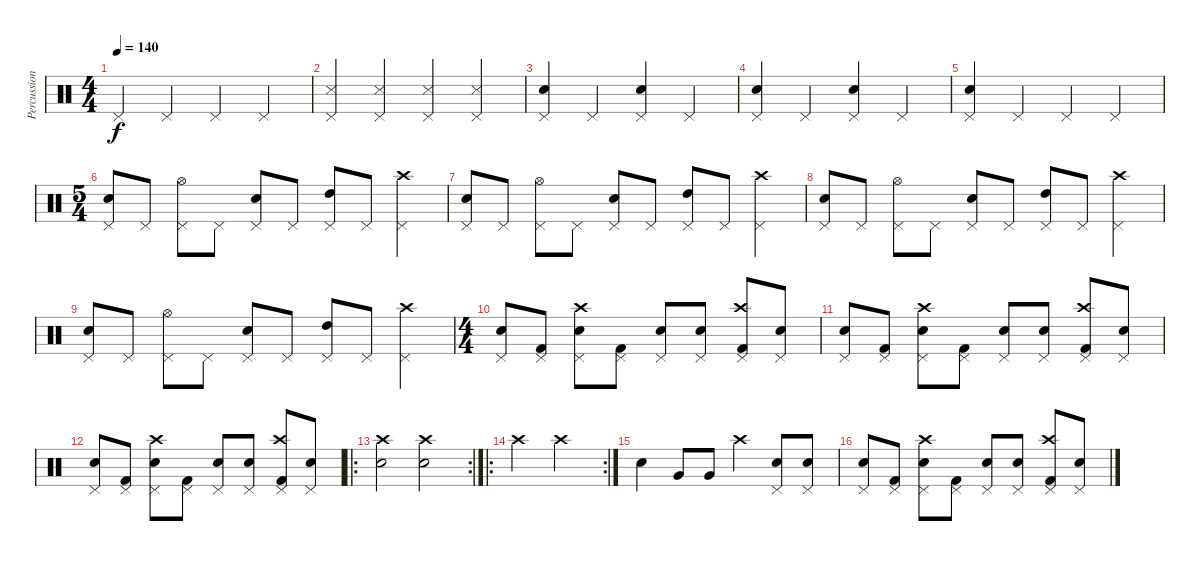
\track ("Percussion" "Percussion") {instrument percussion}
\staff {score}
\articulation defaults
\ts (4 4)
\tempo 140
\clef neutral
\ks c "Pedal Hi-Hat (hit)".4{dy f} "Pedal Hi-Hat (hit)".4 "Pedal Hi-Hat (hit)".4 "Pedal Hi-Hat (hit)".4
|
("Pedal Hi-Hat (hit)" "Snare (side stick) 3").4 ("Pedal Hi-Hat (hit)" "Snare (side stick) 3").4 ("Pedal Hi-Hat (hit)" "Snare (side stick) 3").4 ("Pedal Hi-Hat (hit)" "Snare (side stick) 3").4 |
("Pedal Hi-Hat (hit)" "Snare (hit) 2").4 "Pedal Hi-Hat (hit)".4 ("Pedal Hi-Hat (hit)" "Snare (hit) 2").4 "Pedal Hi-Hat (hit)".4 |
("Pedal Hi-Hat (hit)" "Snare (hit) 2").4 "Pedal Hi-Hat (hit)".4 ("Pedal Hi-Hat (hit)" "Snare (hit) 2").4 "Pedal Hi-Hat (hit)".4 |
("Pedal Hi-Hat (hit)" "Snare (hit) 2").4 "Pedal Hi-Hat (hit)".4 "Pedal Hi-Hat (hit)".4 "Pedal Hi-Hat (hit)".4 |
\ts (5 4)
("Pedal Hi-Hat (hit)" "Snare (hit) 2").8 "Pedal Hi-Hat (hit)".8 ("Pedal Hi-Hat (hit)" "Hi-Hat (open)").8 "Pedal Hi-Hat (hit)".8 ("Pedal Hi-Hat (hit)" "Snare (hit) 2").8 "Pedal Hi-Hat (hit)".8 ("Pedal Hi-Hat (hit)" "High Tom (hit)").8 "Pedal Hi-Hat (hit)".8 ("Pedal Hi-Hat (hit)" "Crash high (hit)").4 |
("Pedal Hi-Hat (hit)" "Snare (hit) 2").8 "Pedal Hi-Hat (hit)".8 ("Pedal Hi-Hat (hit)" "Hi-Hat (open)").8 "Pedal Hi-Hat (hit)".8 ("Pedal Hi-Hat (hit)" "Snare (hit) 2").8 "Pedal Hi-Hat (hit)".8 ("Pedal Hi-Hat (hit)" "High Tom (hit)").8 "Pedal Hi-Hat (hit)".8 ("Pedal Hi-Hat (hit)" "Crash high (hit)").4 |
("Pedal Hi-Hat (hit)" "Snare (hit) 2").8 "Pedal Hi-Hat (hit)".8 ("Pedal Hi-Hat (hit)" "Hi-Hat (open)").8 "Pedal Hi-Hat (hit)".8 ("Pedal Hi-Hat (hit)" "Snare (hit) 2").8 "Pedal Hi-Hat (hit)".8 ("Pedal Hi-Hat (hit)" "High Tom (hit)").8 "Pedal Hi-Hat (hit)".8 ("Pedal Hi-Hat (hit)" "Crash high (hit)").4 |
("Pedal Hi-Hat (hit)" "Snare (hit) 2").8 "Pedal Hi-Hat (hit)".8 ("Pedal Hi-Hat (hit)" "Hi-Hat (open)").8 "Pedal Hi-Hat (hit)".8 ("Pedal Hi-Hat (hit)" "Snare (hit) 2").8 "Pedal Hi-Hat (hit)".8 ("Pedal Hi-Hat (hit)" "High Tom (hit)").8 "Pedal Hi-Hat (hit)".8 ("Pedal Hi-Hat (hit)" "Crash high (hit)").4 |
\ts (4 4)
("Pedal Hi-Hat (hit)" "Snare (hit) 2").8 ("Pedal Hi-Hat (hit)" "Kick (hit) 2").8 ("Pedal Hi-Hat (hit)" "Snare (hit) 2" "Crash high (hit)").8 ("Pedal Hi-Hat (hit)" "Kick (hit) 2").8 ("Pedal Hi-Hat (hit)" "Snare (hit) 2").8 ("Pedal Hi-Hat (hit)" "Snare (hit) 2").8 ("Pedal Hi-Hat (hit)" "Kick (hit) 2" "Crash high (hit)").8 ("Pedal Hi-Hat (hit)" "Snare (hit) 2").8 |
("Pedal Hi-Hat (hit)" "Snare (hit) 2").8 ("Pedal Hi-Hat (hit)" "Kick (hit) 2").8 ("Pedal Hi-Hat (hit)" "Snare (hit) 2" "Crash high (hit)").8 ("Pedal Hi-Hat (hit)" "Kick (hit) 2").8 ("Pedal Hi-Hat (hit)" "Snare (hit) 2").8 ("Pedal Hi-Hat (hit)" "Snare (hit) 2").8 ("Pedal Hi-Hat (hit)" "Kick (hit) 2" "Crash high (hit)").8 ("Pedal Hi-Hat (hit)" "Snare (hit) 2").8 |
("Pedal Hi-Hat (hit)" "Snare (hit) 2").8 ("Pedal Hi-Hat (hit)" "Kick (hit) 2").8 ("Pedal Hi-Hat (hit)" "Snare (hit) 2" "Crash high (hit)").8 ("Pedal Hi-Hat (hit)" "Kick (hit) 2").8 ("Pedal Hi-Hat (hit)" "Snare (hit) 2").8 ("Pedal Hi-Hat (hit)" "Snare (hit) 2").8 ("Pedal Hi-Hat (hit)" "Kick (hit) 2" "Crash high (hit)").8 ("Pedal Hi-Hat (hit)" "Snare (hit) 2").8 |
\ro
\rc 2
("Snare (hit) 2" "Crash high (hit)").2 ("Snare (hit) 2" "Crash high (hit)").2 |
\ro
\rc 2 "Crash high (hit)".2 "Crash high (hit)".2
|
"Snare (hit) 2".4 "Very Low Tom (hit)".8 "Very Low Tom (hit)".8 "Crash high (hit)".4 ("Pedal Hi-Hat (hit)" "Snare (hit) 2").8 ("Pedal Hi-Hat (hit)" "Snare (hit) 2").8 |
("Pedal Hi-Hat (hit)" "Snare (hit) 2").8 ("Pedal Hi-Hat (hit)" "Kick (hit) 2").8 ("Pedal Hi-Hat (hit)" "Snare (hit) 2" "Crash high (hit)").8 ("Pedal Hi-Hat (hit)" "Kick (hit) 2").8 ("Pedal Hi-Hat (hit)" "Snare (hit) 2").8 ("Pedal Hi-Hat (hit)" "Snare (hit) 2").8 ("Pedal Hi-Hat (hit)" "Kick (hit) 2" "Crash high (hit)").8 ("Pedal Hi-Hat (hit)" "Snare (hit) 2").8
